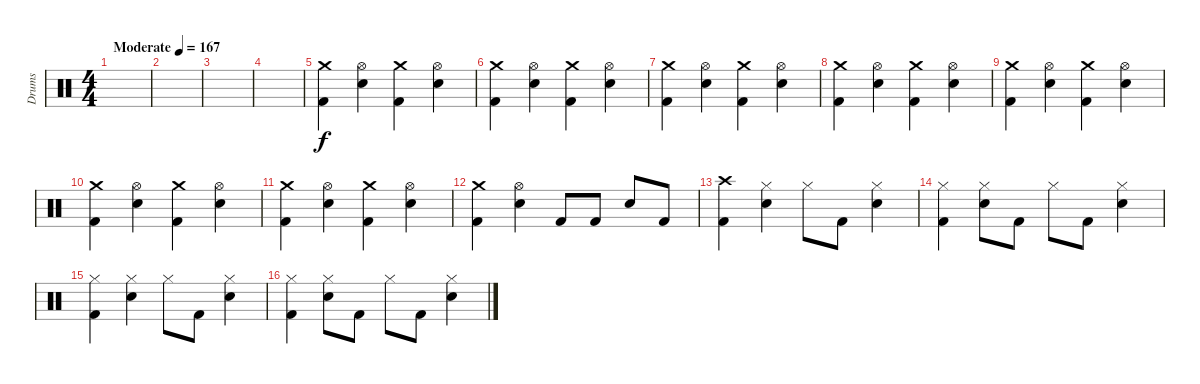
\track ("Drums" "Drums") {instrument percussion}
\staff {score}
\articulation defaults
\ts (4 4)
\tempo (167 "Moderate")
\clef neutral
\ks c
|
|
|
|
("Crash medium (hit)" "Kick (hit) 2").4 ("Hi-Hat (open)" "Snare (hit) 2").4 ("Kick (hit) 2" "Crash medium (hit)").4 ("Hi-Hat (open)" "Snare (hit) 2").4 |
("Crash medium (hit)" "Kick (hit) 2").4 ("Hi-Hat (open)" "Snare (hit) 2").4 ("Kick (hit) 2" "Crash medium (hit)").4 ("Hi-Hat (open)" "Snare (hit) 2").4 |
("Crash medium (hit)" "Kick (hit) 2").4 ("Hi-Hat (open)" "Snare (hit) 2").4 ("Kick (hit) 2" "Crash medium (hit)").4 ("Hi-Hat (open)" "Snare (hit) 2").4 |
("Crash medium (hit)" "Kick (hit) 2").4 ("Hi-Hat (open)" "Snare (hit) 2").4 ("Kick (hit) 2" "Crash medium (hit)").4 ("Hi-Hat (open)" "Snare (hit) 2").4 |
("Crash medium (hit)" "Kick (hit) 2").4 ("Hi-Hat (open)" "Snare (hit) 2").4 ("Kick (hit) 2" "Crash medium (hit)").4 ("Hi-Hat (open)" "Snare (hit) 2").4 |
("Crash medium (hit)" "Kick (hit) 2").4 ("Hi-Hat (open)" "Snare (hit) 2").4 ("Kick (hit) 2" "Crash medium (hit)").4 ("Hi-Hat (open)" "Snare (hit) 2").4 |
("Crash medium (hit)" "Kick (hit) 2").4 ("Hi-Hat (open)" "Snare (hit) 2").4 ("Kick (hit) 2" "Crash medium (hit)").4 ("Hi-Hat (open)" "Snare (hit) 2").4 |
("Crash medium (hit)" "Kick (hit) 2").4 ("Hi-Hat (open)" "Snare (hit) 2").4 "Kick (hit) 2".8 "Kick (hit) 2".8 "Snare (hit) 2".8 "Kick (hit) 2".8 |
("Kick (hit) 2" "Crash high (hit)").4 ("Hi-Hat (closed)" "Snare (hit) 2").4 "Hi-Hat (closed)".8 "Kick (hit) 2".8 ("Hi-Hat (closed)" "Snare (hit) 2").4 |
("Hi-Hat (closed)" "Kick (hit) 2").4 ("Hi-Hat (closed)" "Snare (hit) 2").8 "Kick (hit) 2".8 "Hi-Hat (closed)".8 "Kick (hit) 2".8 ("Hi-Hat (closed)" "Snare (hit) 2").4 |
("Kick (hit) 2" "Hi-Hat (closed)").4 ("Hi-Hat (closed)" "Snare (hit) 2").4 "Hi-Hat (closed)".8 "Kick (hit) 2".8 ("Hi-Hat (closed)" "Snare (hit) 2").4 |
("Hi-Hat (closed)" "Kick (hit) 2").4 ("Hi-Hat (closed)" "Snare (hit) 2").8 "Kick (hit) 2".8 "Hi-Hat (closed)".8 "Kick (hit) 2".8 ("Hi-Hat (closed)" "Snare (hit) 2").4
